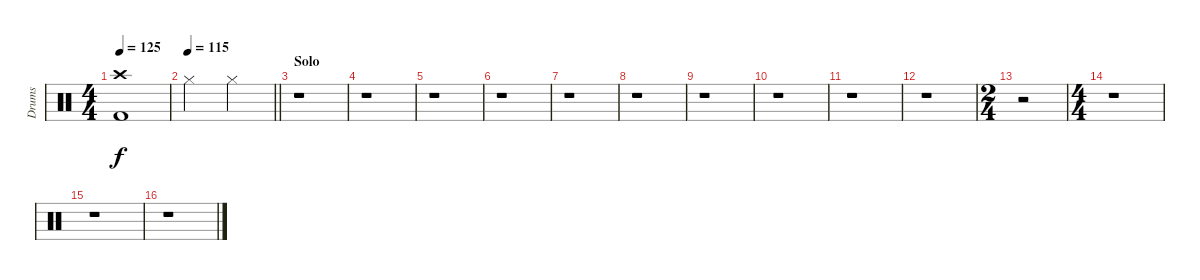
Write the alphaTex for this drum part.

\track ("Drums" "Drums") {instrument percussion}
\staff {score}
\articulation defaults
\ts (4 4)
\tempo 125
\clef neutral
\ks c
("Kick (hit) 2" "Crash high (hit)").1{dy f} |
\tempo 115
\barLineRight lightlight "Hi-Hat (closed)".2 "Hi-Hat (closed)".2
|
\section ("" "Solo")
r.1 |
r.1 |
r.1 |
r.1 |
r.1 |
r.1 |
r.1 |
r.1 |
r.1 |
r.1 |
\ts (2 4)
r.2 |
\ts (4 4)
r.1 |
r.1 |
r.1
